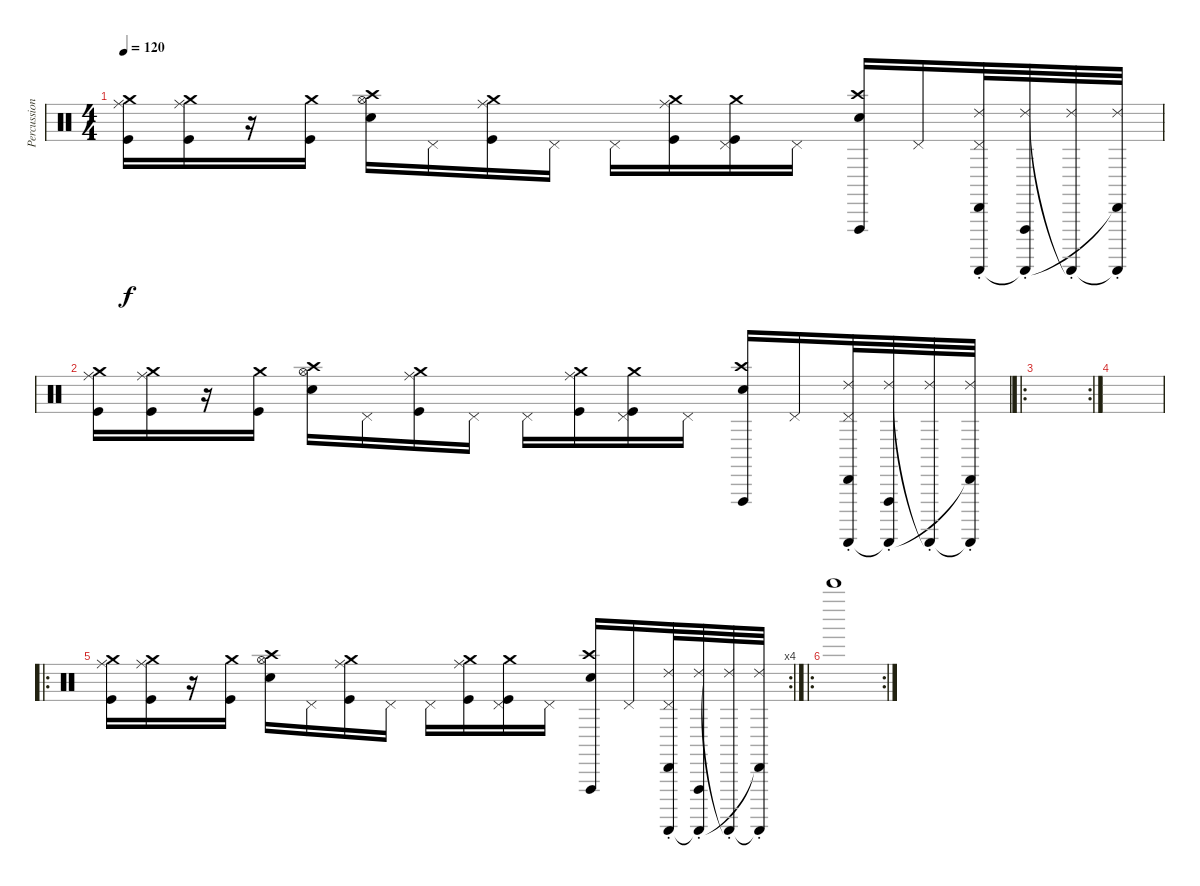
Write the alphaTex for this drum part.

\track ("Percussions" "Percussion") {instrument percussion}
\staff {score}
\articulation defaults
\ts (4 4)
\tempo 120
\clef neutral
\ks c
("Ride (middle)" "Crash medium (hit)" "Kick (hit)").16{dy f} ("Ride (middle)" "Crash medium (hit)" "Kick (hit)").16 r.16 ("Crash medium (hit)" "Kick (hit)").16 ("Crash high (hit)" "Electric Snare (hit)" "Hi-Hat (open)").16 "Pedal Hi-Hat (hit)".16 ("Ride (middle)" "Crash medium (hit)" "Kick (hit)").16 "Pedal Hi-Hat (hit)".16 "Pedal Hi-Hat (hit)".16 ("Ride (middle)" "Crash medium (hit)" "Kick (hit)").16 ("Pedal Hi-Hat (hit)" "Crash medium (hit)" "Kick (hit)").16 "Pedal Hi-Hat (hit)".16 ("Vibraslap (hit)" "Electric Snare (hit)" "Crash high (hit)").16 "Pedal Hi-Hat (hit)".16 ("Pedal Hi-Hat (hit)" "Ride (choke) 2" "Guiro (scrap-return)" "Cabasa (hit)").32 ("Vibraslap (hit)" "Ride (choke) 2" "Guiro (scrap-return)"{t}).32 ("Ride (choke) 2" "Guiro (scrap-return)"{t}).32 ("Ride (choke) 2" "Guiro (scrap-return)"{t} "Cabasa (hit)"{t}).32 |
("Ride (middle)" "Crash medium (hit)" "Kick (hit)").16 ("Ride (middle)" "Crash medium (hit)" "Kick (hit)").16 r.16 ("Crash medium (hit)" "Kick (hit)").16 ("Crash high (hit)" "Electric Snare (hit)" "Hi-Hat (open)").16 "Pedal Hi-Hat (hit)".16 ("Ride (middle)" "Crash medium (hit)" "Kick (hit)").16 "Pedal Hi-Hat (hit)".16 "Pedal Hi-Hat (hit)".16 ("Ride (middle)" "Crash medium (hit)" "Kick (hit)").16 ("Pedal Hi-Hat (hit)" "Crash medium (hit)" "Kick (hit)").16 "Pedal Hi-Hat (hit)".16 ("Vibraslap (hit)" "Electric Snare (hit)" "Crash high (hit)").16 "Pedal Hi-Hat (hit)".16 ("Pedal Hi-Hat (hit)" "Ride (choke) 2" "Guiro (scrap-return)" "Cabasa (hit)").32 ("Vibraslap (hit)" "Ride (choke) 2" "Guiro (scrap-return)"{t}).32 ("Ride (choke) 2" "Guiro (scrap-return)"{t}).32 ("Ride (choke) 2" "Guiro (scrap-return)"{t} "Cabasa (hit)"{t}).32 |
\ro
\rc 2
|
|
\ro
\rc 4
("Ride (middle)" "Crash medium (hit)" "Kick (hit)").16 ("Ride (middle)" "Crash medium (hit)" "Kick (hit)").16 r.16 ("Crash medium (hit)" "Kick (hit)").16 ("Crash high (hit)" "Electric Snare (hit)" "Hi-Hat (open)").16 "Pedal Hi-Hat (hit)".16 ("Ride (middle)" "Crash medium (hit)" "Kick (hit)").16 "Pedal Hi-Hat (hit)".16 "Pedal Hi-Hat (hit)".16 ("Ride (middle)" "Crash medium (hit)" "Kick (hit)").16 ("Pedal Hi-Hat (hit)" "Crash medium (hit)" "Kick (hit)").16 "Pedal Hi-Hat (hit)".16 ("Vibraslap (hit)" "Electric Snare (hit)" "Crash high (hit)").16 "Pedal Hi-Hat (hit)".16 ("Pedal Hi-Hat (hit)" "Ride (choke) 2" "Guiro (scrap-return)" "Cabasa (hit)").32 ("Vibraslap (hit)" "Ride (choke) 2" "Guiro (scrap-return)"{t}).32 ("Ride (choke) 2" "Guiro (scrap-return)"{t}).32 ("Ride (choke) 2" "Guiro (scrap-return)"{t} "Cabasa (hit)"{t}).32 |
\ro
\rc 2 "Bell Tree (hit)".1
